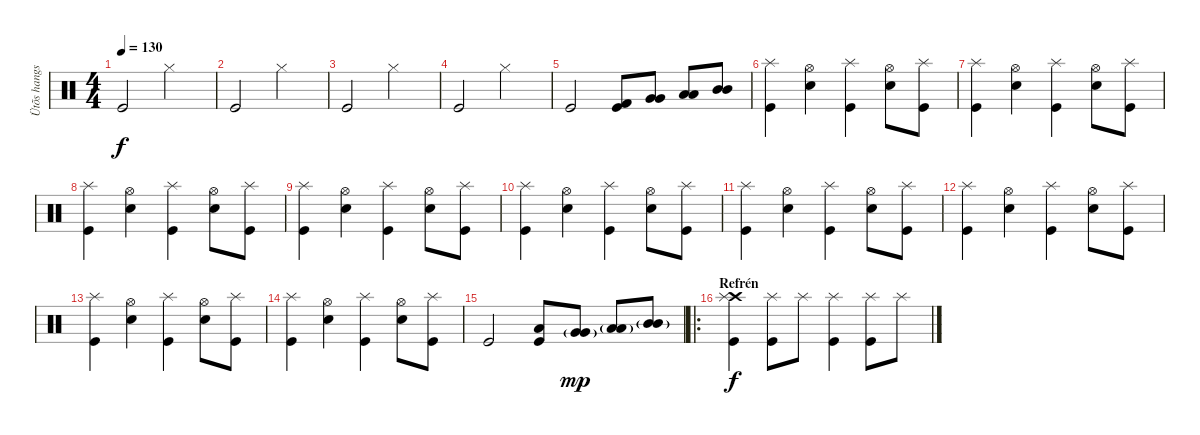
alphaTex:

\track ("Ütõs hangszer" "Ütõs hangs") {instrument percussion}
\staff {score}
\articulation defaults
\ts (4 4)
\tempo 130
\clef neutral
\ks c "Kick (hit)".2{dy f} "Hi-Hat (closed)".2
|
"Kick (hit)".2 "Hi-Hat (closed)".2 |
"Kick (hit)".2 "Hi-Hat (closed)".2 |
"Kick (hit)".2 "Hi-Hat (closed)".2 |
"Kick (hit)".2 ("Kick (hit) 2" "Kick (hit)").8 ("Very Low Tom (hit)" "Very Low Tom (hit)").8 ("Low Tom (hit)" "Low Tom (hit)").8 ("Mid Tom (hit)" "Mid Tom (hit)").8 |
("Splash (hit)" "Kick (hit)").4 ("Hi-Hat (open)" "Snare (hit) 2").4 ("Splash (hit)" "Kick (hit)").4 ("Hi-Hat (open)" "Snare (hit) 2").8 ("Splash (hit)" "Kick (hit)").8 |
("Splash (hit)" "Kick (hit)").4 ("Hi-Hat (open)" "Snare (hit) 2").4 ("Splash (hit)" "Kick (hit)").4 ("Hi-Hat (open)" "Snare (hit) 2").8 ("Splash (hit)" "Kick (hit)").8 |
("Splash (hit)" "Kick (hit)").4 ("Hi-Hat (open)" "Snare (hit) 2").4 ("Splash (hit)" "Kick (hit)").4 ("Hi-Hat (open)" "Snare (hit) 2").8 ("Splash (hit)" "Kick (hit)").8 |
("Splash (hit)" "Kick (hit)").4 ("Hi-Hat (open)" "Snare (hit) 2").4 ("Splash (hit)" "Kick (hit)").4 ("Hi-Hat (open)" "Snare (hit) 2").8 ("Splash (hit)" "Kick (hit)").8 |
("Splash (hit)" "Kick (hit)").4 ("Hi-Hat (open)" "Snare (hit) 2").4 ("Splash (hit)" "Kick (hit)").4 ("Hi-Hat (open)" "Snare (hit) 2").8 ("Splash (hit)" "Kick (hit)").8 |
("Splash (hit)" "Kick (hit)").4 ("Hi-Hat (open)" "Snare (hit) 2").4 ("Splash (hit)" "Kick (hit)").4 ("Hi-Hat (open)" "Snare (hit) 2").8 ("Splash (hit)" "Kick (hit)").8 |
("Splash (hit)" "Kick (hit)").4 ("Hi-Hat (open)" "Snare (hit) 2").4 ("Splash (hit)" "Kick (hit)").4 ("Hi-Hat (open)" "Snare (hit) 2").8 ("Splash (hit)" "Kick (hit)").8 |
("Splash (hit)" "Kick (hit)").4 ("Hi-Hat (open)" "Snare (hit) 2").4 ("Splash (hit)" "Kick (hit)").4 ("Hi-Hat (open)" "Snare (hit) 2").8 ("Splash (hit)" "Kick (hit)").8 |
("Splash (hit)" "Kick (hit)").4 ("Hi-Hat (open)" "Snare (hit) 2").4 ("Splash (hit)" "Kick (hit)").4 ("Hi-Hat (open)" "Snare (hit) 2").8 ("Splash (hit)" "Kick (hit)").8 |
"Kick (hit)".2 ("Low Floor Tom (hit)" "Kick (hit)").8 ("Very Low Tom (hit)" "Very Low Tom (hit)"{g}).8{dy mp} ("Low Tom (hit)" "Low Tom (hit)"{g}).8 ("Mid Tom (hit)" "Mid Tom (hit)"{g}).8 |
\ro
\section ("" "Refrén")
("Crash high (hit)" "Splash (hit)" "Kick (hit)").4{dy f} ("Splash (hit)" "Kick (hit)").8 "Splash (hit)".8 ("Splash (hit)" "Kick (hit)").4 ("Splash (hit)" "Kick (hit)").8 "Splash (hit)".8
